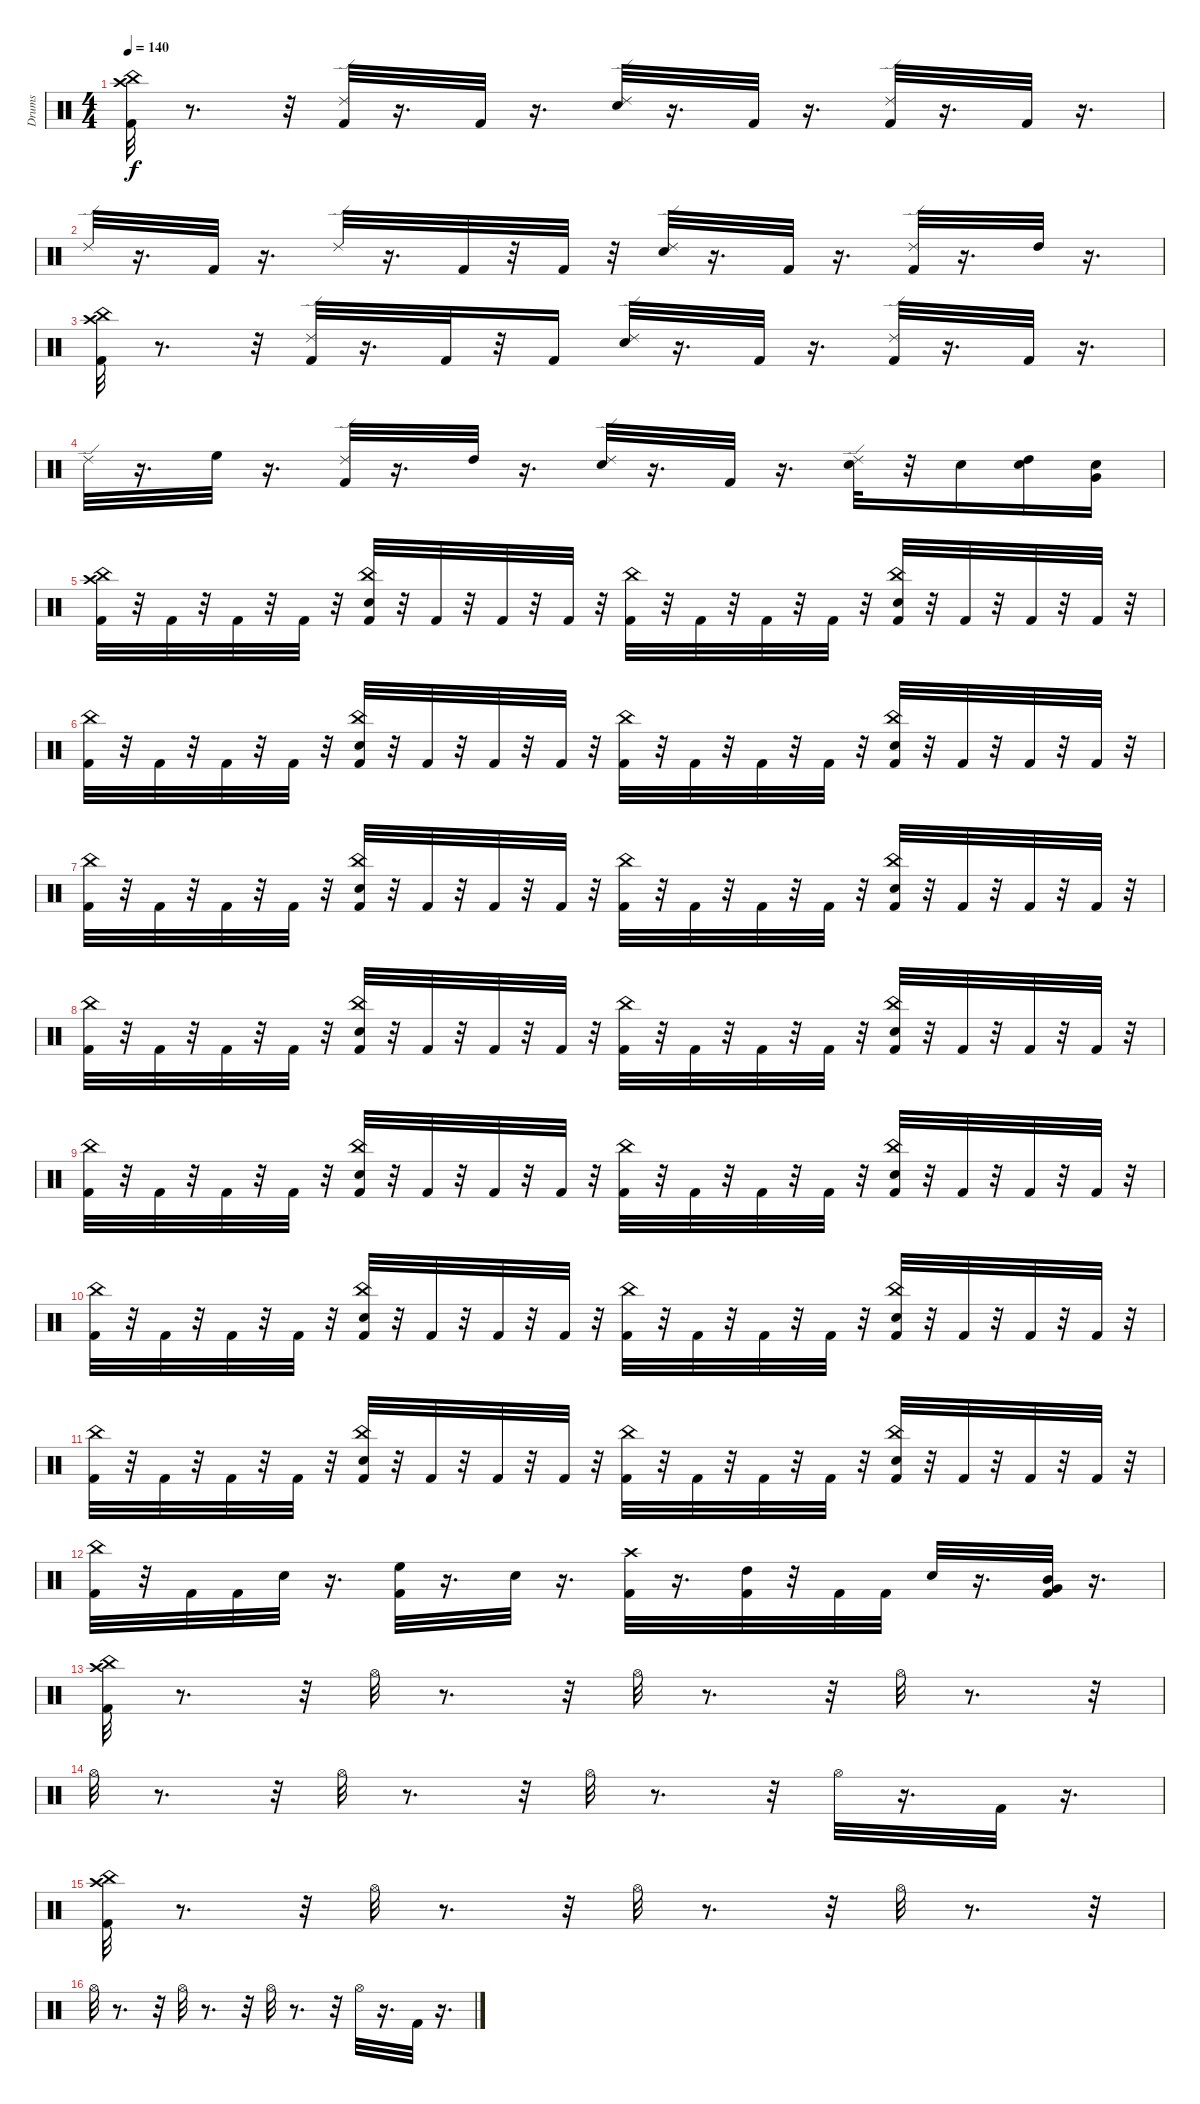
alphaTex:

\track ("Drums" "Drums") {instrument percussion}
\staff {score}
\articulation defaults
\ts (4 4)
\tempo 140
\clef neutral
\ks c
("Kick (hit) 2" "Crash high (hit)" "China (hit)").32{dy f} r.8{d} r.32 ("Kick (hit) 2" "Ride (edge) 2").32 r.16{d} "Kick (hit) 2".32 r.16{d} ("Snare (hit) 2" "Ride (edge) 2").32 r.16{d} "Kick (hit) 2".32 r.16{d} ("Kick (hit) 2" "Ride (edge) 2").32 r.16{d} "Kick (hit) 2".32 r.16{d} |
"Ride (edge) 2".32 r.16{d} "Kick (hit) 2".32 r.16{d} "Ride (edge) 2".32 r.16{d} "Kick (hit) 2".32 r.32 "Kick (hit) 2".32 r.32 ("Snare (hit) 2" "Ride (edge) 2").32 r.16{d} "Kick (hit) 2".32 r.16{d} ("Kick (hit) 2" "Ride (edge) 2").32 r.16{d} "High Tom (hit)".32 r.16{d} |
("Kick (hit) 2" "Crash high (hit)" "China (hit)").32 r.8{d} r.32 ("Kick (hit) 2" "Ride (edge) 2").32 r.16{d} "Kick (hit) 2".32 r.32 "Kick (hit) 2".16 ("Snare (hit) 2" "Ride (edge) 2").32 r.16{d} "Kick (hit) 2".32 r.16{d} ("Kick (hit) 2" "Ride (edge) 2").32 r.16{d} "Kick (hit) 2".32 r.16{d} |
"Ride (edge) 2".32 r.16{d} "High Floor Tom (hit)".32 r.16{d} ("Kick (hit) 2" "Ride (edge) 2").32 r.16{d} "High Tom (hit)".32 r.16{d} ("Snare (hit) 2" "Ride (edge) 2").32 r.16{d} "Kick (hit) 2".32 r.16{d} ("Snare (hit) 2" "Ride (edge) 2").32 r.32 "Snare (hit) 2".16 ("Snare (hit) 2" "High Tom (hit)").16 ("Snare (hit) 2" "Very Low Tom (hit)").16 |
("Kick (hit) 2" "Crash high (hit)" "China (hit)").32 r.32 "Kick (hit) 2".32 r.32 "Kick (hit) 2".32 r.32 "Kick (hit) 2".32 r.32 ("Kick (hit) 2" "Snare (hit) 2" "China (hit)").32 r.32 "Kick (hit) 2".32 r.32 "Kick (hit) 2".32 r.32 "Kick (hit) 2".32 r.32 ("Kick (hit) 2" "China (hit)").32 r.32 "Kick (hit) 2".32 r.32 "Kick (hit) 2".32 r.32 "Kick (hit) 2".32 r.32 ("Kick (hit) 2" "Snare (hit) 2" "China (hit)").32 r.32 "Kick (hit) 2".32 r.32 "Kick (hit) 2".32 r.32 "Kick (hit) 2".32 r.32 |
("Kick (hit) 2" "China (hit)").32 r.32 "Kick (hit) 2".32 r.32 "Kick (hit) 2".32 r.32 "Kick (hit) 2".32 r.32 ("Kick (hit) 2" "Snare (hit) 2" "China (hit)").32 r.32 "Kick (hit) 2".32 r.32 "Kick (hit) 2".32 r.32 "Kick (hit) 2".32 r.32 ("Kick (hit) 2" "China (hit)").32 r.32 "Kick (hit) 2".32 r.32 "Kick (hit) 2".32 r.32 "Kick (hit) 2".32 r.32 ("Kick (hit) 2" "Snare (hit) 2" "China (hit)").32 r.32 "Kick (hit) 2".32 r.32 "Kick (hit) 2".32 r.32 "Kick (hit) 2".32 r.32 |
("Kick (hit) 2" "China (hit)").32 r.32 "Kick (hit) 2".32 r.32 "Kick (hit) 2".32 r.32 "Kick (hit) 2".32 r.32 ("Kick (hit) 2" "Snare (hit) 2" "China (hit)").32 r.32 "Kick (hit) 2".32 r.32 "Kick (hit) 2".32 r.32 "Kick (hit) 2".32 r.32 ("Kick (hit) 2" "China (hit)").32 r.32 "Kick (hit) 2".32 r.32 "Kick (hit) 2".32 r.32 "Kick (hit) 2".32 r.32 ("Kick (hit) 2" "Snare (hit) 2" "China (hit)").32 r.32 "Kick (hit) 2".32 r.32 "Kick (hit) 2".32 r.32 "Kick (hit) 2".32 r.32 |
("Kick (hit) 2" "China (hit)").32 r.32 "Kick (hit) 2".32 r.32 "Kick (hit) 2".32 r.32 "Kick (hit) 2".32 r.32 ("Kick (hit) 2" "Snare (hit) 2" "China (hit)").32 r.32 "Kick (hit) 2".32 r.32 "Kick (hit) 2".32 r.32 "Kick (hit) 2".32 r.32 ("Kick (hit) 2" "China (hit)").32 r.32 "Kick (hit) 2".32 r.32 "Kick (hit) 2".32 r.32 "Kick (hit) 2".32 r.32 ("Kick (hit) 2" "Snare (hit) 2" "China (hit)").32 r.32 "Kick (hit) 2".32 r.32 "Kick (hit) 2".32 r.32 "Kick (hit) 2".32 r.32 |
("Kick (hit) 2" "China (hit)").32 r.32 "Kick (hit) 2".32 r.32 "Kick (hit) 2".32 r.32 "Kick (hit) 2".32 r.32 ("Kick (hit) 2" "Snare (hit) 2" "China (hit)").32 r.32 "Kick (hit) 2".32 r.32 "Kick (hit) 2".32 r.32 "Kick (hit) 2".32 r.32 ("Kick (hit) 2" "China (hit)").32 r.32 "Kick (hit) 2".32 r.32 "Kick (hit) 2".32 r.32 "Kick (hit) 2".32 r.32 ("Kick (hit) 2" "Snare (hit) 2" "China (hit)").32 r.32 "Kick (hit) 2".32 r.32 "Kick (hit) 2".32 r.32 "Kick (hit) 2".32 r.32 |
("Kick (hit) 2" "China (hit)").32 r.32 "Kick (hit) 2".32 r.32 "Kick (hit) 2".32 r.32 "Kick (hit) 2".32 r.32 ("Kick (hit) 2" "Snare (hit) 2" "China (hit)").32 r.32 "Kick (hit) 2".32 r.32 "Kick (hit) 2".32 r.32 "Kick (hit) 2".32 r.32 ("Kick (hit) 2" "China (hit)").32 r.32 "Kick (hit) 2".32 r.32 "Kick (hit) 2".32 r.32 "Kick (hit) 2".32 r.32 ("Kick (hit) 2" "Snare (hit) 2" "China (hit)").32 r.32 "Kick (hit) 2".32 r.32 "Kick (hit) 2".32 r.32 "Kick (hit) 2".32 r.32 |
("Kick (hit) 2" "China (hit)").32 r.32 "Kick (hit) 2".32 r.32 "Kick (hit) 2".32 r.32 "Kick (hit) 2".32 r.32 ("Kick (hit) 2" "Snare (hit) 2" "China (hit)").32 r.32 "Kick (hit) 2".32 r.32 "Kick (hit) 2".32 r.32 "Kick (hit) 2".32 r.32 ("Kick (hit) 2" "China (hit)").32 r.32 "Kick (hit) 2".32 r.32 "Kick (hit) 2".32 r.32 "Kick (hit) 2".32 r.32 ("Kick (hit) 2" "Snare (hit) 2" "China (hit)").32 r.32 "Kick (hit) 2".32 r.32 "Kick (hit) 2".32 r.32 "Kick (hit) 2".32 r.32 |
("Kick (hit) 2" "China (hit)").32 r.32 "Kick (hit) 2".32 "Kick (hit) 2".32 "Snare (hit) 2".32 r.16{d} ("Kick (hit) 2" "High Floor Tom (hit)").32 r.16{d} "Snare (hit) 2".32 r.16{d} ("Kick (hit) 2" "Crash high (hit)").32 r.16{d} ("Kick (hit) 2" "High Tom (hit)").32 r.32 "Kick (hit) 2".32 "Kick (hit) 2".32 "Snare (hit) 2".32 r.16{d} ("Kick (hit) 2" "Very Low Tom (hit)" "Mid Tom (hit)").32 r.16{d} |
("Kick (hit) 2" "Crash high (hit)" "China (hit)").32 r.8{d} r.32 "Hi-Hat (open)".32 r.8{d} r.32 "Hi-Hat (open)".32 r.8{d} r.32 "Hi-Hat (open)".32 r.8{d} r.32 |
"Hi-Hat (open)".32 r.8{d} r.32 "Hi-Hat (open)".32 r.8{d} r.32 "Hi-Hat (open)".32 r.8{d} r.32 "Hi-Hat (open)".32 r.16{d} "Kick (hit) 2".32 r.16{d} |
("Kick (hit) 2" "Crash high (hit)" "China (hit)").32 r.8{d} r.32 "Hi-Hat (open)".32 r.8{d} r.32 "Hi-Hat (open)".32 r.8{d} r.32 "Hi-Hat (open)".32 r.8{d} r.32 |
"Hi-Hat (open)".32 r.8{d} r.32 "Hi-Hat (open)".32 r.8{d} r.32 "Hi-Hat (open)".32 r.8{d} r.32 "Hi-Hat (open)".32 r.16{d} "Kick (hit) 2".32 r.16{d}
